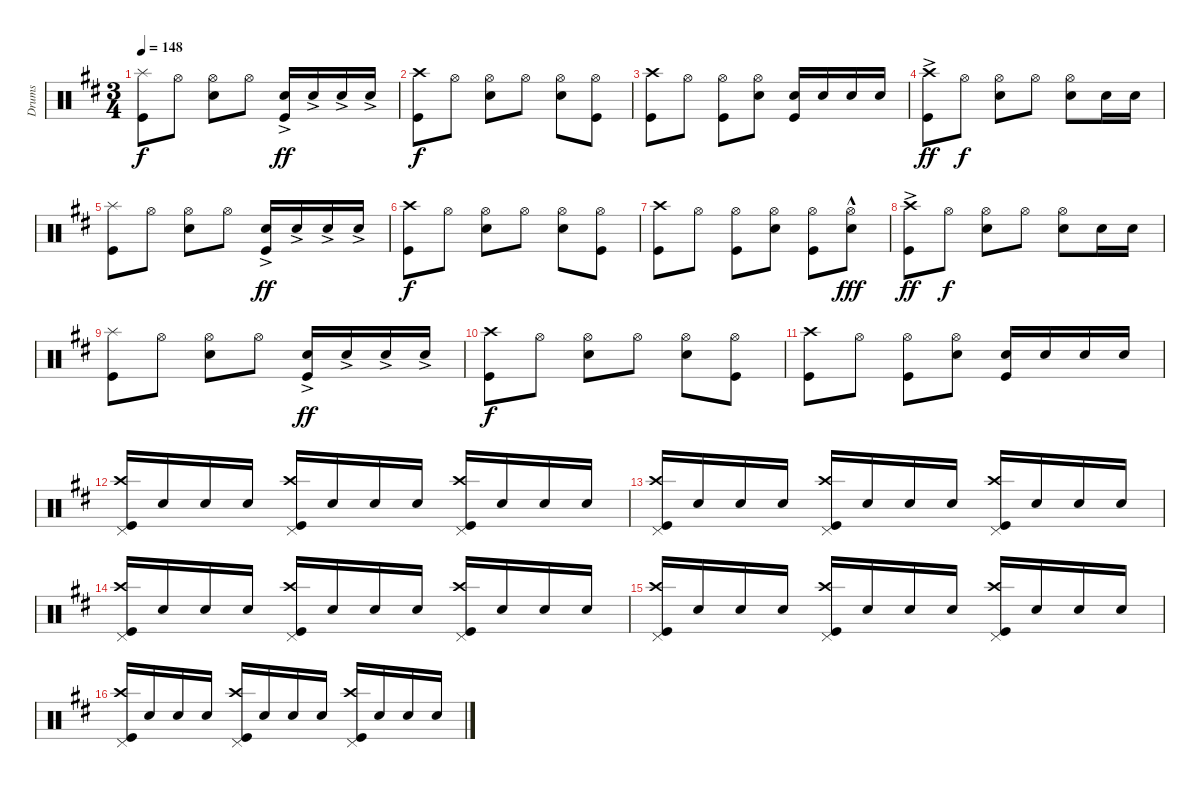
\track ("Drums" "Drums") {instrument percussion}
\staff {score}
\articulation defaults
\ts (3 4)
\tempo 148
\clef neutral
\ks bminor
("Splash (hit)" "Kick (hit)").8{dy f} "Hi-Hat (open)".8 ("Hi-Hat (open)" "Snare (hit) 2").8 "Hi-Hat (open)".8 ("Snare (hit) 2"{ac} "Kick (hit)").16{dy ff} "Snare (hit) 2"{ac}.16 "Snare (hit) 2"{ac}.16 "Snare (hit) 2"{ac}.16 |
("Crash high (hit)" "Kick (hit)").8{dy f} "Hi-Hat (open)".8 ("Hi-Hat (open)" "Snare (hit) 2").8 "Hi-Hat (open)".8 ("Hi-Hat (open)" "Snare (hit) 2").8 ("Hi-Hat (open)" "Kick (hit)").8 |
("Crash high (hit)" "Kick (hit)").8 "Hi-Hat (open)".8 ("Hi-Hat (open)" "Kick (hit)").8 ("Hi-Hat (open)" "Snare (hit) 2").8 ("Snare (hit) 2" "Kick (hit)").16 "Snare (hit) 2".16 "Snare (hit) 2".16 "Snare (hit) 2".16 |
("Crash high (hit)"{ac} "Kick (hit)").8{dy ff} "Hi-Hat (open)".8{dy f} ("Hi-Hat (open)" "Snare (hit) 2").8 "Hi-Hat (open)".8 ("Hi-Hat (open)" "Snare (hit) 2").8 "Snare (hit) 2".16 "Snare (hit) 2".16 |
("Splash (hit)" "Kick (hit)").8 "Hi-Hat (open)".8 ("Hi-Hat (open)" "Snare (hit) 2").8 "Hi-Hat (open)".8 ("Snare (hit) 2"{ac} "Kick (hit)").16{dy ff} "Snare (hit) 2"{ac}.16 "Snare (hit) 2"{ac}.16 "Snare (hit) 2"{ac}.16 |
("Crash high (hit)" "Kick (hit)").8{dy f} "Hi-Hat (open)".8 ("Hi-Hat (open)" "Snare (hit) 2").8 "Hi-Hat (open)".8 ("Hi-Hat (open)" "Snare (hit) 2").8 ("Hi-Hat (open)" "Kick (hit)").8 |
("Crash high (hit)" "Kick (hit)").8 "Hi-Hat (open)".8 ("Hi-Hat (open)" "Kick (hit)").8 ("Hi-Hat (open)" "Snare (hit) 2").8 ("Hi-Hat (open)" "Kick (hit)").8 ("Hi-Hat (open)"{hac} "Snare (hit) 2").8{dy fff} |
("Crash high (hit)"{ac} "Kick (hit)").8{dy ff} "Hi-Hat (open)".8{dy f} ("Hi-Hat (open)" "Snare (hit) 2").8 "Hi-Hat (open)".8 ("Hi-Hat (open)" "Snare (hit) 2").8 "Snare (hit) 2".16 "Snare (hit) 2".16 |
("Splash (hit)" "Kick (hit)").8 "Hi-Hat (open)".8 ("Hi-Hat (open)" "Snare (hit) 2").8 "Hi-Hat (open)".8 ("Snare (hit) 2"{ac} "Kick (hit)").16{dy ff} "Snare (hit) 2"{ac}.16 "Snare (hit) 2"{ac}.16 "Snare (hit) 2"{ac}.16 |
("Crash high (hit)" "Kick (hit)").8{dy f} "Hi-Hat (open)".8 ("Hi-Hat (open)" "Snare (hit) 2").8 "Hi-Hat (open)".8 ("Hi-Hat (open)" "Snare (hit) 2").8 ("Hi-Hat (open)" "Kick (hit)").8 |
("Crash high (hit)" "Kick (hit)").8 "Hi-Hat (open)".8 ("Hi-Hat (open)" "Kick (hit)").8 ("Hi-Hat (open)" "Snare (hit) 2").8 ("Snare (hit) 2" "Kick (hit)").16 "Snare (hit) 2".16 "Snare (hit) 2".16 "Snare (hit) 2".16 |
("Pedal Hi-Hat (hit)" "Crash high (hit)" "Kick (hit)").16 "Snare (hit) 2".16 "Snare (hit) 2".16 "Snare (hit) 2".16 ("Pedal Hi-Hat (hit)" "Crash high (hit)" "Kick (hit)").16 "Snare (hit) 2".16 "Snare (hit) 2".16 "Snare (hit) 2".16 ("Pedal Hi-Hat (hit)" "Crash high (hit)" "Kick (hit)").16 "Snare (hit) 2".16 "Snare (hit) 2".16 "Snare (hit) 2".16 |
("Pedal Hi-Hat (hit)" "Crash high (hit)" "Kick (hit)").16 "Snare (hit) 2".16 "Snare (hit) 2".16 "Snare (hit) 2".16 ("Pedal Hi-Hat (hit)" "Crash high (hit)" "Kick (hit)").16 "Snare (hit) 2".16 "Snare (hit) 2".16 "Snare (hit) 2".16 ("Pedal Hi-Hat (hit)" "Crash high (hit)" "Kick (hit)").16 "Snare (hit) 2".16 "Snare (hit) 2".16 "Snare (hit) 2".16 |
("Pedal Hi-Hat (hit)" "Crash high (hit)" "Kick (hit)").16 "Snare (hit) 2".16 "Snare (hit) 2".16 "Snare (hit) 2".16 ("Pedal Hi-Hat (hit)" "Crash high (hit)" "Kick (hit)").16 "Snare (hit) 2".16 "Snare (hit) 2".16 "Snare (hit) 2".16 ("Pedal Hi-Hat (hit)" "Crash high (hit)" "Kick (hit)").16 "Snare (hit) 2".16 "Snare (hit) 2".16 "Snare (hit) 2".16 |
("Pedal Hi-Hat (hit)" "Crash high (hit)" "Kick (hit)").16 "Snare (hit) 2".16 "Snare (hit) 2".16 "Snare (hit) 2".16 ("Pedal Hi-Hat (hit)" "Crash high (hit)" "Kick (hit)").16 "Snare (hit) 2".16 "Snare (hit) 2".16 "Snare (hit) 2".16 ("Pedal Hi-Hat (hit)" "Crash high (hit)" "Kick (hit)").16 "Snare (hit) 2".16 "Snare (hit) 2".16 "Snare (hit) 2".16 |
("Pedal Hi-Hat (hit)" "Crash high (hit)" "Kick (hit)").16 "Snare (hit) 2".16 "Snare (hit) 2".16 "Snare (hit) 2".16 ("Pedal Hi-Hat (hit)" "Crash high (hit)" "Kick (hit)").16 "Snare (hit) 2".16 "Snare (hit) 2".16 "Snare (hit) 2".16 ("Pedal Hi-Hat (hit)" "Crash high (hit)" "Kick (hit)").16 "Snare (hit) 2".16 "Snare (hit) 2".16 "Snare (hit) 2".16
